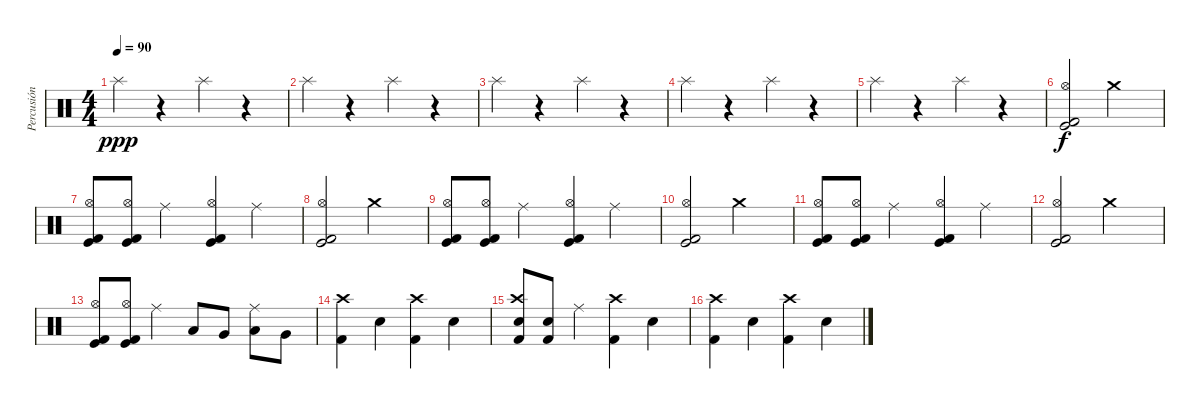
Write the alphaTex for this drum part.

\track ("Percusión" "Percusión") {instrument percussion}
\staff {score}
\articulation defaults
\ts (4 4)
\tempo 90
\clef neutral
\ks c "Splash (hit)".4{dy ppp}
r.4 "Splash (hit)".4 r.4 |
"Splash (hit)".4 r.4 "Splash (hit)".4 r.4 |
"Splash (hit)".4 r.4 "Splash (hit)".4 r.4 |
"Splash (hit)".4 r.4 "Splash (hit)".4 r.4 |
"Splash (hit)".4 r.4 "Splash (hit)".4 r.4 |
("Kick (hit) 2" "Hi-Hat (open)" "Kick (hit)").2{dy f} "Crash medium (hit)".2 |
("Kick (hit) 2" "Hi-Hat (open)" "Kick (hit)").8 ("Kick (hit) 2" "Hi-Hat (open)" "Kick (hit)").8 "Ride (middle)".4 ("Kick (hit) 2" "Hi-Hat (open)" "Kick (hit)").4 "Ride (middle)".4 |
("Kick (hit) 2" "Hi-Hat (open)" "Kick (hit)").2 "Crash medium (hit)".2 |
("Kick (hit) 2" "Hi-Hat (open)" "Kick (hit)").8 ("Kick (hit) 2" "Hi-Hat (open)" "Kick (hit)").8 "Ride (middle)".4 ("Kick (hit) 2" "Hi-Hat (open)" "Kick (hit)").4 "Ride (middle)".4 |
("Kick (hit) 2" "Hi-Hat (open)" "Kick (hit)").2 "Crash medium (hit)".2 |
("Kick (hit) 2" "Hi-Hat (open)" "Kick (hit)").8 ("Kick (hit) 2" "Hi-Hat (open)" "Kick (hit)").8 "Ride (middle)".4 ("Kick (hit) 2" "Hi-Hat (open)" "Kick (hit)").4 "Ride (middle)".4 |
("Kick (hit) 2" "Hi-Hat (open)" "Kick (hit)").2 "Crash medium (hit)".2 |
("Kick (hit) 2" "Hi-Hat (open)" "Kick (hit)").8 ("Kick (hit) 2" "Hi-Hat (open)" "Kick (hit)").8 "Ride (middle)".4 "Low Tom (hit)".8 "Very Low Tom (hit)".8 ("Low Floor Tom (hit)" "Ride (middle)").8 "Very Low Tom (hit)".8 |
("Kick (hit) 2" "Crash high (hit)").4 "Snare (hit) 2".4 ("Kick (hit) 2" "Crash high (hit)").4 "Snare (hit) 2".4 |
("Kick (hit) 2" "Snare (hit) 2" "Crash high (hit)").8 ("Kick (hit) 2" "Snare (hit) 2").8 "Ride (middle)".4 ("Kick (hit) 2" "Crash high (hit)").4 "Snare (hit) 2".4 |
("Kick (hit) 2" "Crash high (hit)").4 "Snare (hit) 2".4 ("Kick (hit) 2" "Crash high (hit)").4 "Snare (hit) 2".4
